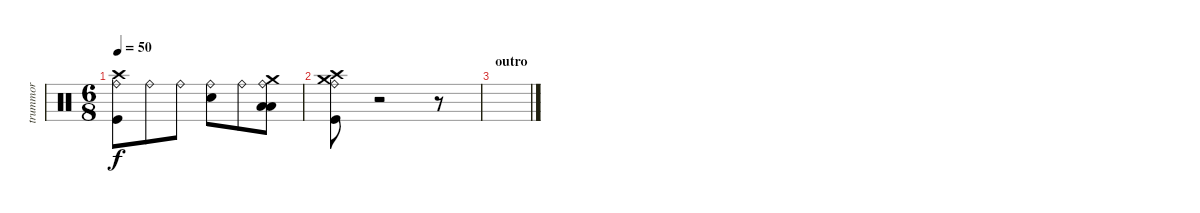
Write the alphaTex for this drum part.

\track ("trummor" "trummor") {instrument percussion}
\staff {score}
\articulation defaults
\ts (6 8)
\tempo 50
\clef neutral
\ks c
("Kick (hit)" "Ride (bell)" "Crash high (hit)").8{dy f} "Ride (bell)".8 "Ride (bell)".8 ("Electric Snare (hit)" "Ride (bell)").8 "Ride (bell)".8 ("Low Floor Tom (hit)" "Ride (bell)" "Low Tom (hit)" "Crash medium (hit)").8 |
("Kick (hit)" "Ride (bell)" "Crash medium (hit)" "Crash high (hit)").8 r.2 r.8 |
\section ("" "outro")
